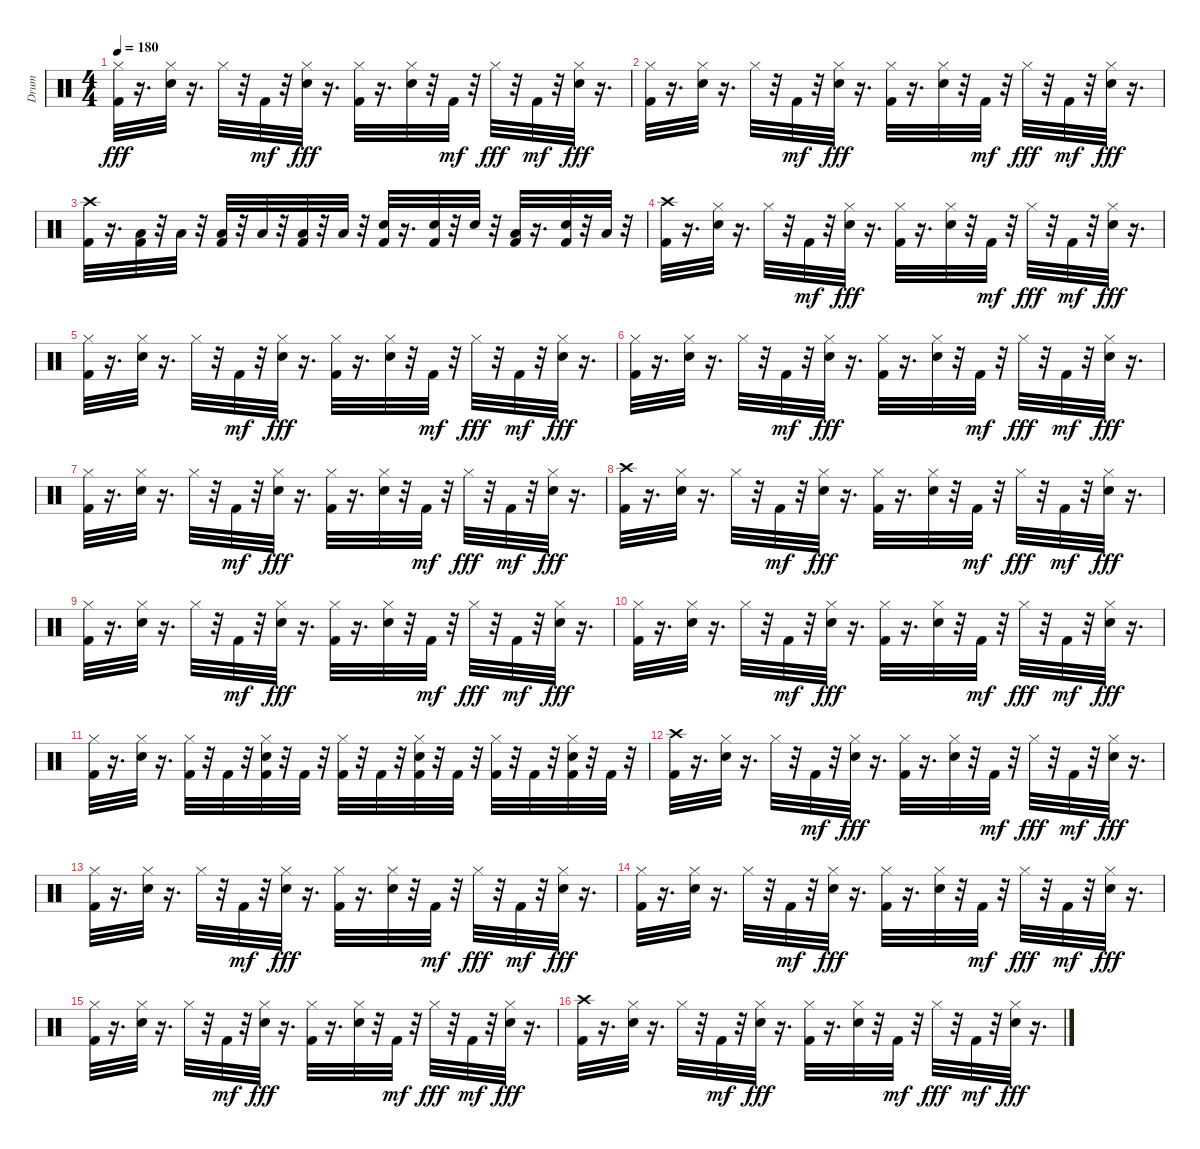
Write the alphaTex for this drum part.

\track ("Drum" "Drum") {instrument percussion}
\staff {score}
\articulation defaults
\ts (4 4)
\tempo 180
\clef neutral
\ks c
("Kick (hit) 2" "Hi-Hat (closed)").32{dy fff} r.16{d} ("Hi-Hat (closed)" "Snare (hit) 2").32 r.16{d} "Hi-Hat (closed)".32 r.32 "Kick (hit) 2".32{dy mf} r.32 ("Hi-Hat (closed)" "Snare (hit) 2").32{dy fff} r.16{d} ("Kick (hit) 2" "Hi-Hat (closed)").32 r.16{d} ("Hi-Hat (closed)" "Snare (hit) 2").32 r.32 "Kick (hit) 2".32{dy mf} r.32 "Hi-Hat (closed)".32{dy fff} r.32 "Kick (hit) 2".32{dy mf} r.32 ("Hi-Hat (closed)" "Snare (hit) 2").32{dy fff} r.16{d} |
("Kick (hit) 2" "Hi-Hat (closed)").32 r.16{d} ("Hi-Hat (closed)" "Snare (hit) 2").32 r.16{d} "Hi-Hat (closed)".32 r.32 "Kick (hit) 2".32{dy mf} r.32 ("Hi-Hat (closed)" "Snare (hit) 2").32{dy fff} r.16{d} ("Kick (hit) 2" "Hi-Hat (closed)").32 r.16{d} ("Hi-Hat (closed)" "Snare (hit) 2").32 r.32 "Kick (hit) 2".32{dy mf} r.32 "Hi-Hat (closed)".32{dy fff} r.32 "Kick (hit) 2".32{dy mf} r.32 ("Hi-Hat (closed)" "Snare (hit) 2").32{dy fff} r.16{d} |
("Kick (hit) 2" "Crash high (hit)").32 r.16{d} ("Kick (hit) 2" "Low Floor Tom (hit)").32 r.32 "Low Floor Tom (hit)".32 r.32 ("Kick (hit) 2" "Low Floor Tom (hit)").32 r.32 "Low Floor Tom (hit)".32 r.32 ("Kick (hit) 2" "Low Floor Tom (hit)").32 r.32 "Low Floor Tom (hit)".32 r.32 ("Kick (hit) 2" "Snare (hit) 2").32 r.16{d} ("Kick (hit) 2" "Snare (hit) 2").32 r.32 "Snare (hit) 2".32 r.32 ("Kick (hit) 2" "Low Floor Tom (hit)").32 r.16{d} ("Kick (hit) 2" "Snare (hit) 2").32 r.32 "Low Floor Tom (hit)".32 r.32 |
("Kick (hit) 2" "Crash high (hit)").32 r.16{d} ("Hi-Hat (closed)" "Snare (hit) 2").32 r.16{d} "Hi-Hat (closed)".32 r.32 "Kick (hit) 2".32{dy mf} r.32 ("Hi-Hat (closed)" "Snare (hit) 2").32{dy fff} r.16{d} ("Kick (hit) 2" "Hi-Hat (closed)").32 r.16{d} ("Hi-Hat (closed)" "Snare (hit) 2").32 r.32 "Kick (hit) 2".32{dy mf} r.32 "Hi-Hat (closed)".32{dy fff} r.32 "Kick (hit) 2".32{dy mf} r.32 ("Hi-Hat (closed)" "Snare (hit) 2").32{dy fff} r.16{d} |
("Kick (hit) 2" "Hi-Hat (closed)").32 r.16{d} ("Hi-Hat (closed)" "Snare (hit) 2").32 r.16{d} "Hi-Hat (closed)".32 r.32 "Kick (hit) 2".32{dy mf} r.32 ("Hi-Hat (closed)" "Snare (hit) 2").32{dy fff} r.16{d} ("Kick (hit) 2" "Hi-Hat (closed)").32 r.16{d} ("Hi-Hat (closed)" "Snare (hit) 2").32 r.32 "Kick (hit) 2".32{dy mf} r.32 "Hi-Hat (closed)".32{dy fff} r.32 "Kick (hit) 2".32{dy mf} r.32 ("Hi-Hat (closed)" "Snare (hit) 2").32{dy fff} r.16{d} |
("Kick (hit) 2" "Hi-Hat (closed)").32 r.16{d} ("Hi-Hat (closed)" "Snare (hit) 2").32 r.16{d} "Hi-Hat (closed)".32 r.32 "Kick (hit) 2".32{dy mf} r.32 ("Hi-Hat (closed)" "Snare (hit) 2").32{dy fff} r.16{d} ("Kick (hit) 2" "Hi-Hat (closed)").32 r.16{d} ("Hi-Hat (closed)" "Snare (hit) 2").32 r.32 "Kick (hit) 2".32{dy mf} r.32 "Hi-Hat (closed)".32{dy fff} r.32 "Kick (hit) 2".32{dy mf} r.32 ("Hi-Hat (closed)" "Snare (hit) 2").32{dy fff} r.16{d} |
("Kick (hit) 2" "Hi-Hat (closed)").32 r.16{d} ("Hi-Hat (closed)" "Snare (hit) 2").32 r.16{d} "Hi-Hat (closed)".32 r.32 "Kick (hit) 2".32{dy mf} r.32 ("Hi-Hat (closed)" "Snare (hit) 2").32{dy fff} r.16{d} ("Kick (hit) 2" "Hi-Hat (closed)").32 r.16{d} ("Hi-Hat (closed)" "Snare (hit) 2").32 r.32 "Kick (hit) 2".32{dy mf} r.32 "Hi-Hat (closed)".32{dy fff} r.32 "Kick (hit) 2".32{dy mf} r.32 ("Hi-Hat (closed)" "Snare (hit) 2").32{dy fff} r.16{d} |
("Kick (hit) 2" "Crash high (hit)").32 r.16{d} ("Hi-Hat (closed)" "Snare (hit) 2").32 r.16{d} "Hi-Hat (closed)".32 r.32 "Kick (hit) 2".32{dy mf} r.32 ("Hi-Hat (closed)" "Snare (hit) 2").32{dy fff} r.16{d} ("Kick (hit) 2" "Hi-Hat (closed)").32 r.16{d} ("Hi-Hat (closed)" "Snare (hit) 2").32 r.32 "Kick (hit) 2".32{dy mf} r.32 "Hi-Hat (closed)".32{dy fff} r.32 "Kick (hit) 2".32{dy mf} r.32 ("Hi-Hat (closed)" "Snare (hit) 2").32{dy fff} r.16{d} |
("Kick (hit) 2" "Hi-Hat (closed)").32 r.16{d} ("Hi-Hat (closed)" "Snare (hit) 2").32 r.16{d} "Hi-Hat (closed)".32 r.32 "Kick (hit) 2".32{dy mf} r.32 ("Hi-Hat (closed)" "Snare (hit) 2").32{dy fff} r.16{d} ("Kick (hit) 2" "Hi-Hat (closed)").32 r.16{d} ("Hi-Hat (closed)" "Snare (hit) 2").32 r.32 "Kick (hit) 2".32{dy mf} r.32 "Hi-Hat (closed)".32{dy fff} r.32 "Kick (hit) 2".32{dy mf} r.32 ("Hi-Hat (closed)" "Snare (hit) 2").32{dy fff} r.16{d} |
("Kick (hit) 2" "Hi-Hat (closed)").32 r.16{d} ("Hi-Hat (closed)" "Snare (hit) 2").32 r.16{d} "Hi-Hat (closed)".32 r.32 "Kick (hit) 2".32{dy mf} r.32 ("Hi-Hat (closed)" "Snare (hit) 2").32{dy fff} r.16{d} ("Kick (hit) 2" "Hi-Hat (closed)").32 r.16{d} ("Hi-Hat (closed)" "Snare (hit) 2").32 r.32 "Kick (hit) 2".32{dy mf} r.32 "Hi-Hat (closed)".32{dy fff} r.32 "Kick (hit) 2".32{dy mf} r.32 ("Hi-Hat (closed)" "Snare (hit) 2").32{dy fff} r.16{d} |
("Kick (hit) 2" "Hi-Hat (closed)").32 r.16{d} ("Snare (hit) 2" "Hi-Hat (closed)").32 r.16{d} ("Kick (hit) 2" "Hi-Hat (closed)").32 r.32 "Kick (hit) 2".32 r.32 ("Kick (hit) 2" "Snare (hit) 2" "Hi-Hat (closed)").32 r.32 "Kick (hit) 2".32 r.32 ("Kick (hit) 2" "Hi-Hat (closed)").32 r.32 "Kick (hit) 2".32 r.32 ("Kick (hit) 2" "Snare (hit) 2" "Hi-Hat (closed)").32 r.32 "Kick (hit) 2".32 r.32 ("Kick (hit) 2" "Hi-Hat (closed)").32 r.32 "Kick (hit) 2".32 r.32 ("Kick (hit) 2" "Snare (hit) 2" "Hi-Hat (closed)").32 r.32 "Kick (hit) 2".32 r.32 |
("Kick (hit) 2" "Crash high (hit)").32 r.16{d} ("Hi-Hat (closed)" "Snare (hit) 2").32 r.16{d} "Hi-Hat (closed)".32 r.32 "Kick (hit) 2".32{dy mf} r.32 ("Hi-Hat (closed)" "Snare (hit) 2").32{dy fff} r.16{d} ("Kick (hit) 2" "Hi-Hat (closed)").32 r.16{d} ("Hi-Hat (closed)" "Snare (hit) 2").32 r.32 "Kick (hit) 2".32{dy mf} r.32 "Hi-Hat (closed)".32{dy fff} r.32 "Kick (hit) 2".32{dy mf} r.32 ("Hi-Hat (closed)" "Snare (hit) 2").32{dy fff} r.16{d} |
("Kick (hit) 2" "Hi-Hat (closed)").32 r.16{d} ("Hi-Hat (closed)" "Snare (hit) 2").32 r.16{d} "Hi-Hat (closed)".32 r.32 "Kick (hit) 2".32{dy mf} r.32 ("Hi-Hat (closed)" "Snare (hit) 2").32{dy fff} r.16{d} ("Kick (hit) 2" "Hi-Hat (closed)").32 r.16{d} ("Hi-Hat (closed)" "Snare (hit) 2").32 r.32 "Kick (hit) 2".32{dy mf} r.32 "Hi-Hat (closed)".32{dy fff} r.32 "Kick (hit) 2".32{dy mf} r.32 ("Hi-Hat (closed)" "Snare (hit) 2").32{dy fff} r.16{d} |
("Kick (hit) 2" "Hi-Hat (closed)").32 r.16{d} ("Hi-Hat (closed)" "Snare (hit) 2").32 r.16{d} "Hi-Hat (closed)".32 r.32 "Kick (hit) 2".32{dy mf} r.32 ("Hi-Hat (closed)" "Snare (hit) 2").32{dy fff} r.16{d} ("Kick (hit) 2" "Hi-Hat (closed)").32 r.16{d} ("Hi-Hat (closed)" "Snare (hit) 2").32 r.32 "Kick (hit) 2".32{dy mf} r.32 "Hi-Hat (closed)".32{dy fff} r.32 "Kick (hit) 2".32{dy mf} r.32 ("Hi-Hat (closed)" "Snare (hit) 2").32{dy fff} r.16{d} |
("Kick (hit) 2" "Hi-Hat (closed)").32 r.16{d} ("Hi-Hat (closed)" "Snare (hit) 2").32 r.16{d} "Hi-Hat (closed)".32 r.32 "Kick (hit) 2".32{dy mf} r.32 ("Hi-Hat (closed)" "Snare (hit) 2").32{dy fff} r.16{d} ("Kick (hit) 2" "Hi-Hat (closed)").32 r.16{d} ("Hi-Hat (closed)" "Snare (hit) 2").32 r.32 "Kick (hit) 2".32{dy mf} r.32 "Hi-Hat (closed)".32{dy fff} r.32 "Kick (hit) 2".32{dy mf} r.32 ("Hi-Hat (closed)" "Snare (hit) 2").32{dy fff} r.16{d} |
("Kick (hit) 2" "Crash high (hit)").32 r.16{d} ("Hi-Hat (closed)" "Snare (hit) 2").32 r.16{d} "Hi-Hat (closed)".32 r.32 "Kick (hit) 2".32{dy mf} r.32 ("Hi-Hat (closed)" "Snare (hit) 2").32{dy fff} r.16{d} ("Kick (hit) 2" "Hi-Hat (closed)").32 r.16{d} ("Hi-Hat (closed)" "Snare (hit) 2").32 r.32 "Kick (hit) 2".32{dy mf} r.32 "Hi-Hat (closed)".32{dy fff} r.32 "Kick (hit) 2".32{dy mf} r.32 ("Hi-Hat (closed)" "Snare (hit) 2").32{dy fff} r.16{d}
